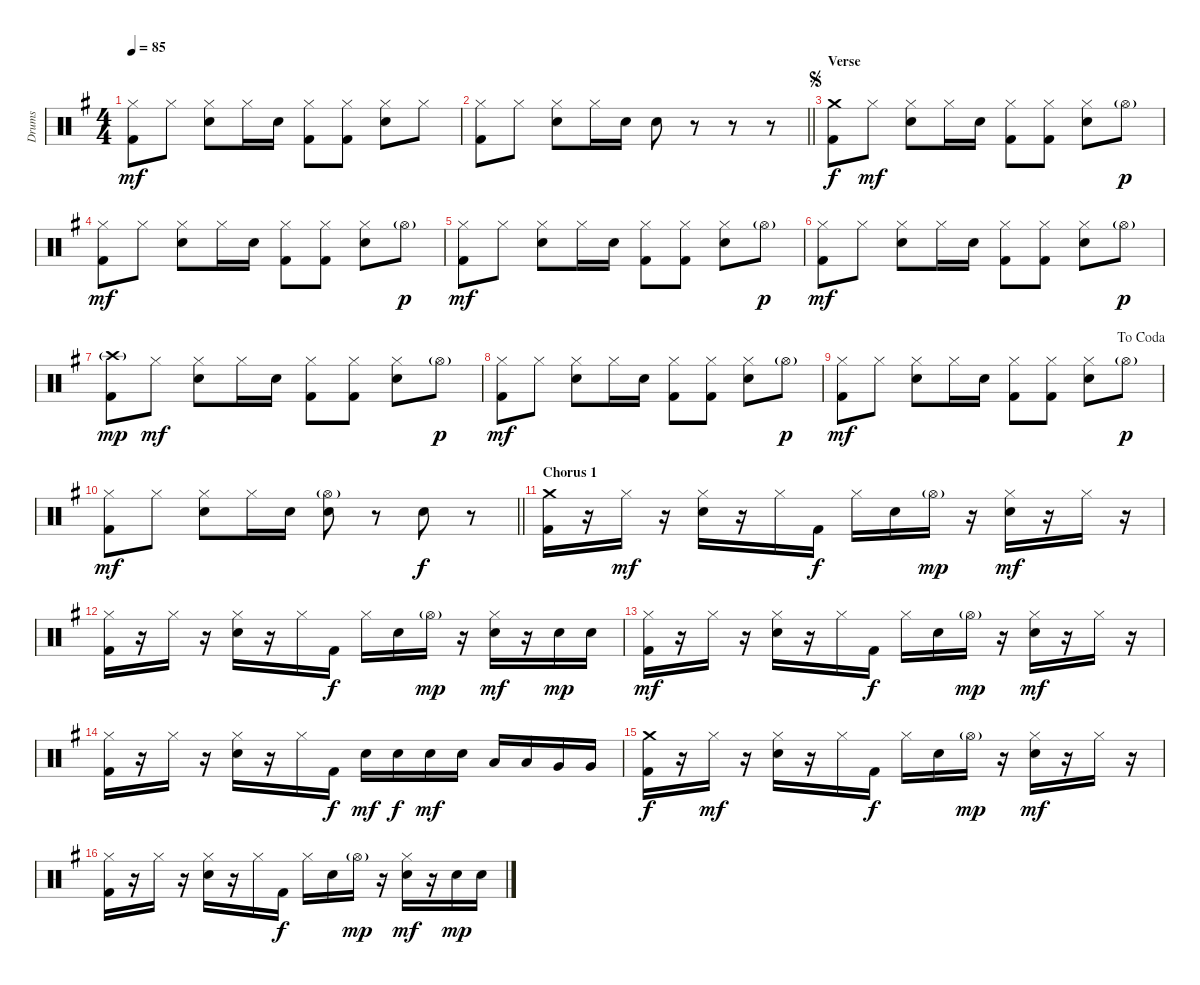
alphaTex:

\track ("Drums" "Drums") {instrument percussion}
\staff {score}
\articulation defaults
\ts (4 4)
\tempo 85
\clef neutral
\ks g
("Hi-Hat (closed)" "Kick (hit) 2").8{dy mf} "Hi-Hat (closed)".8 ("Hi-Hat (closed)" "Snare (hit) 2").8 "Hi-Hat (closed)".16 "Snare (hit) 2".16 ("Hi-Hat (closed)" "Kick (hit) 2").8 ("Hi-Hat (closed)" "Kick (hit) 2").8 ("Hi-Hat (closed)" "Snare (hit) 2").8 "Hi-Hat (closed)".8 |
\barLineRight lightlight
("Hi-Hat (closed)" "Kick (hit) 2").8 "Hi-Hat (closed)".8 ("Hi-Hat (closed)" "Snare (hit) 2").8 "Hi-Hat (closed)".16 "Snare (hit) 2".16 "Snare (hit) 2".8 r.8 r.8 r.8 |
\section ("" "Verse")
\jump segno
("Crash medium (hit)" "Kick (hit) 2").8{dy f} "Hi-Hat (closed)".8{dy mf} ("Hi-Hat (closed)" "Snare (hit) 2").8 "Hi-Hat (closed)".16 "Snare (hit) 2".16 ("Hi-Hat (closed)" "Kick (hit) 2").8 ("Hi-Hat (closed)" "Kick (hit) 2").8 ("Hi-Hat (closed)" "Snare (hit) 2").8 "Hi-Hat (open)"{g}.8{dy p} |
("Hi-Hat (closed)" "Kick (hit) 2").8{dy mf} "Hi-Hat (closed)".8 ("Hi-Hat (closed)" "Snare (hit) 2").8 "Hi-Hat (closed)".16 "Snare (hit) 2".16 ("Hi-Hat (closed)" "Kick (hit) 2").8 ("Hi-Hat (closed)" "Kick (hit) 2").8 ("Hi-Hat (closed)" "Snare (hit) 2").8 "Hi-Hat (open)"{g}.8{dy p} |
("Hi-Hat (closed)" "Kick (hit) 2").8{dy mf} "Hi-Hat (closed)".8 ("Hi-Hat (closed)" "Snare (hit) 2").8 "Hi-Hat (closed)".16 "Snare (hit) 2".16 ("Hi-Hat (closed)" "Kick (hit) 2").8 ("Hi-Hat (closed)" "Kick (hit) 2").8 ("Hi-Hat (closed)" "Snare (hit) 2").8 "Hi-Hat (open)"{g}.8{dy p} |
("Hi-Hat (closed)" "Kick (hit) 2").8{dy mf} "Hi-Hat (closed)".8 ("Hi-Hat (closed)" "Snare (hit) 2").8 "Hi-Hat (closed)".16 "Snare (hit) 2".16 ("Hi-Hat (closed)" "Kick (hit) 2").8 ("Hi-Hat (closed)" "Kick (hit) 2").8 ("Hi-Hat (closed)" "Snare (hit) 2").8 "Hi-Hat (open)"{g}.8{dy p} |
("Crash high (hit)"{g} "Kick (hit) 2").8{dy mp} "Hi-Hat (closed)".8{dy mf} ("Hi-Hat (closed)" "Snare (hit) 2").8 "Hi-Hat (closed)".16 "Snare (hit) 2".16 ("Hi-Hat (closed)" "Kick (hit) 2").8 ("Hi-Hat (closed)" "Kick (hit) 2").8 ("Hi-Hat (closed)" "Snare (hit) 2").8 "Hi-Hat (open)"{g}.8{dy p} |
("Hi-Hat (closed)" "Kick (hit) 2").8{dy mf} "Hi-Hat (closed)".8 ("Hi-Hat (closed)" "Snare (hit) 2").8 "Hi-Hat (closed)".16 "Snare (hit) 2".16 ("Hi-Hat (closed)" "Kick (hit) 2").8 ("Hi-Hat (closed)" "Kick (hit) 2").8 ("Hi-Hat (closed)" "Snare (hit) 2").8 "Hi-Hat (open)"{g}.8{dy p} |
\jump dacoda
("Hi-Hat (closed)" "Kick (hit) 2").8{dy mf} "Hi-Hat (closed)".8 ("Hi-Hat (closed)" "Snare (hit) 2").8 "Hi-Hat (closed)".16 "Snare (hit) 2".16 ("Hi-Hat (closed)" "Kick (hit) 2").8 ("Hi-Hat (closed)" "Kick (hit) 2").8 ("Hi-Hat (closed)" "Snare (hit) 2").8 "Hi-Hat (open)"{g}.8{dy p} |
\barLineRight lightlight
("Hi-Hat (closed)" "Kick (hit) 2").8{dy mf} "Hi-Hat (closed)".8 ("Hi-Hat (closed)" "Snare (hit) 2").8 "Hi-Hat (closed)".16 "Snare (hit) 2".16 ("Hi-Hat (open)"{g} "Snare (hit) 2").8 r.8 "Snare (hit) 2".8{dy f} r.8 |
\section ("" "Chorus 1")
("Crash medium (hit)" "Kick (hit) 2").16 r.16 "Hi-Hat (closed)".16{dy mf} r.16 ("Hi-Hat (closed)" "Snare (hit) 2").16 r.16 "Hi-Hat (closed)".16 "Kick (hit) 2".16{dy f} "Hi-Hat (closed)".16 "Snare (hit) 2".16 "Hi-Hat (open)"{g}.16{dy mp} r.16 ("Hi-Hat (closed)" "Snare (hit) 2").16{dy mf} r.16 "Hi-Hat (closed)".16 r.16 |
("Hi-Hat (closed)" "Kick (hit) 2").16 r.16 "Hi-Hat (closed)".16 r.16 ("Hi-Hat (closed)" "Snare (hit) 2").16 r.16 "Hi-Hat (closed)".16 "Kick (hit) 2".16{dy f} "Hi-Hat (closed)".16 "Snare (hit) 2".16 "Hi-Hat (open)"{g}.16{dy mp} r.16 ("Hi-Hat (closed)" "Snare (hit) 2").16{dy mf} r.16 "Snare (hit) 2".16{dy mp} "Snare (hit) 2".16 |
("Hi-Hat (closed)" "Kick (hit) 2").16{dy mf} r.16 "Hi-Hat (closed)".16 r.16 ("Hi-Hat (closed)" "Snare (hit) 2").16 r.16 "Hi-Hat (closed)".16 "Kick (hit) 2".16{dy f} "Hi-Hat (closed)".16 "Snare (hit) 2".16 "Hi-Hat (open)"{g}.16{dy mp} r.16 ("Hi-Hat (closed)" "Snare (hit) 2").16{dy mf} r.16 "Hi-Hat (closed)".16 r.16 |
("Hi-Hat (closed)" "Kick (hit) 2").16 r.16 "Hi-Hat (closed)".16 r.16 ("Hi-Hat (closed)" "Snare (hit) 2").16 r.16 "Hi-Hat (closed)".16 "Kick (hit) 2".16{dy f} "Snare (hit) 2".16{dy mf} "Snare (hit) 2".16{dy f} "Snare (hit) 2".16{dy mf} "Snare (hit) 2".16 "Low Tom (hit)".16 "Low Tom (hit)".16 "Very Low Tom (hit)".16 "Very Low Tom (hit)".16 |
("Crash medium (hit)" "Kick (hit) 2").16{dy f} r.16 "Hi-Hat (closed)".16{dy mf} r.16 ("Hi-Hat (closed)" "Snare (hit) 2").16 r.16 "Hi-Hat (closed)".16 "Kick (hit) 2".16{dy f} "Hi-Hat (closed)".16 "Snare (hit) 2".16 "Hi-Hat (open)"{g}.16{dy mp} r.16 ("Hi-Hat (closed)" "Snare (hit) 2").16{dy mf} r.16 "Hi-Hat (closed)".16 r.16 |
("Hi-Hat (closed)" "Kick (hit) 2").16 r.16 "Hi-Hat (closed)".16 r.16 ("Hi-Hat (closed)" "Snare (hit) 2").16 r.16 "Hi-Hat (closed)".16 "Kick (hit) 2".16{dy f} "Hi-Hat (closed)".16 "Snare (hit) 2".16 "Hi-Hat (open)"{g}.16{dy mp} r.16 ("Hi-Hat (closed)" "Snare (hit) 2").16{dy mf} r.16 "Snare (hit) 2".16{dy mp} "Snare (hit) 2".16
